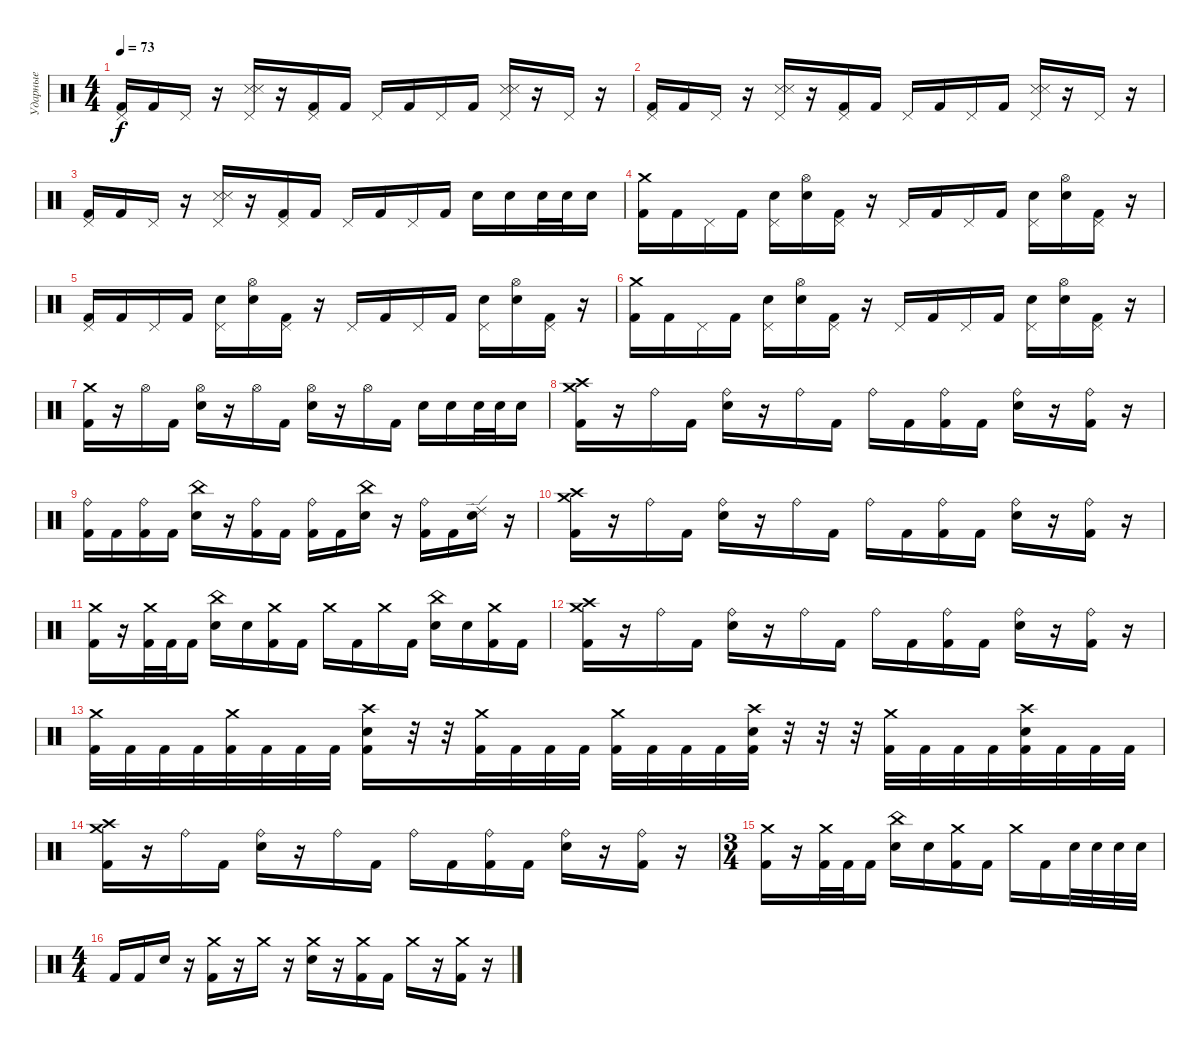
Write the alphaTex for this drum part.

\track ("Ударные" "Ударные") {instrument percussion}
\staff {score}
\articulation defaults
\ts (4 4)
\tempo 73
\clef neutral
\ks c
("Pedal Hi-Hat (hit)" "Kick (hit) 2").16{dy f} "Kick (hit) 2".16 "Pedal Hi-Hat (hit)".16 r.16 ("Pedal Hi-Hat (hit)" "Snare (side stick) 3" "Snare (side stick) 3").16 r.16 ("Pedal Hi-Hat (hit)" "Kick (hit) 2").16 "Kick (hit) 2".16 "Pedal Hi-Hat (hit)".16 "Kick (hit) 2".16 "Pedal Hi-Hat (hit)".16 "Kick (hit) 2".16 ("Pedal Hi-Hat (hit)" "Snare (side stick) 3" "Snare (side stick) 3").16 r.16 "Pedal Hi-Hat (hit)".16 r.16 |
("Pedal Hi-Hat (hit)" "Kick (hit) 2").16 "Kick (hit) 2".16 "Pedal Hi-Hat (hit)".16 r.16 ("Pedal Hi-Hat (hit)" "Snare (side stick) 3" "Snare (side stick) 3").16 r.16 ("Pedal Hi-Hat (hit)" "Kick (hit) 2").16 "Kick (hit) 2".16 "Pedal Hi-Hat (hit)".16 "Kick (hit) 2".16 "Pedal Hi-Hat (hit)".16 "Kick (hit) 2".16 ("Pedal Hi-Hat (hit)" "Snare (side stick) 3" "Snare (side stick) 3").16 r.16 "Pedal Hi-Hat (hit)".16 r.16 |
("Pedal Hi-Hat (hit)" "Kick (hit) 2").16 "Kick (hit) 2".16 "Pedal Hi-Hat (hit)".16 r.16 ("Pedal Hi-Hat (hit)" "Snare (side stick) 3" "Snare (side stick) 3").16 r.16 ("Pedal Hi-Hat (hit)" "Kick (hit) 2").16 "Kick (hit) 2".16 "Pedal Hi-Hat (hit)".16 "Kick (hit) 2".16 "Pedal Hi-Hat (hit)".16 "Kick (hit) 2".16 "Electric Snare (hit)".16 "Electric Snare (hit)".16 "Electric Snare (hit)".32 "Electric Snare (hit)".32 "Electric Snare (hit)".16 |
("Crash medium (hit)" "Kick (hit) 2").16 "Kick (hit) 2".16 "Pedal Hi-Hat (hit)".16 "Kick (hit) 2".16 ("Pedal Hi-Hat (hit)" "Electric Snare (hit)").16 ("Hi-Hat (open)" "Electric Snare (hit)").16 ("Pedal Hi-Hat (hit)" "Kick (hit) 2").16 r.16 "Pedal Hi-Hat (hit)".16 "Kick (hit) 2".16 "Pedal Hi-Hat (hit)".16 "Kick (hit) 2".16 ("Pedal Hi-Hat (hit)" "Electric Snare (hit)").16 ("Hi-Hat (open)" "Electric Snare (hit)").16 ("Pedal Hi-Hat (hit)" "Kick (hit) 2").16 r.16 |
("Pedal Hi-Hat (hit)" "Kick (hit) 2").16 "Kick (hit) 2".16 "Pedal Hi-Hat (hit)".16 "Kick (hit) 2".16 ("Pedal Hi-Hat (hit)" "Electric Snare (hit)").16 ("Hi-Hat (open)" "Electric Snare (hit)").16 ("Pedal Hi-Hat (hit)" "Kick (hit) 2").16 r.16 "Pedal Hi-Hat (hit)".16 "Kick (hit) 2".16 "Pedal Hi-Hat (hit)".16 "Kick (hit) 2".16 ("Pedal Hi-Hat (hit)" "Electric Snare (hit)").16 ("Hi-Hat (open)" "Electric Snare (hit)").16 ("Pedal Hi-Hat (hit)" "Kick (hit) 2").16 r.16 |
("Crash medium (hit)" "Kick (hit) 2").16 "Kick (hit) 2".16 "Pedal Hi-Hat (hit)".16 "Kick (hit) 2".16 ("Pedal Hi-Hat (hit)" "Electric Snare (hit)").16 ("Hi-Hat (open)" "Electric Snare (hit)").16 ("Pedal Hi-Hat (hit)" "Kick (hit) 2").16 r.16 "Pedal Hi-Hat (hit)".16 "Kick (hit) 2".16 "Pedal Hi-Hat (hit)".16 "Kick (hit) 2".16 ("Pedal Hi-Hat (hit)" "Electric Snare (hit)").16 ("Hi-Hat (open)" "Electric Snare (hit)").16 ("Pedal Hi-Hat (hit)" "Kick (hit) 2").16 r.16 |
("Crash medium (hit)" "Kick (hit) 2").16 r.16 "Hi-Hat (open)".16 "Kick (hit) 2".16 ("Hi-Hat (open)" "Electric Snare (hit)").16 r.16 "Hi-Hat (open)".16 "Kick (hit) 2".16 ("Hi-Hat (open)" "Electric Snare (hit)").16 r.16 "Hi-Hat (open)".16 "Kick (hit) 2".16 "Electric Snare (hit)".16 "Electric Snare (hit)".16 "Electric Snare (hit)".32 "Electric Snare (hit)".32 "Electric Snare (hit)".16 |
("Crash medium (hit)" "Crash high (hit)" "Kick (hit) 2").16 r.16 "Ride (bell)".16 "Kick (hit) 2".16 ("Ride (bell)" "Electric Snare (hit)").16 r.16 "Ride (bell)".16 "Kick (hit) 2".16 "Ride (bell)".16 "Kick (hit) 2".16 ("Ride (bell)" "Kick (hit) 2").16 "Kick (hit) 2".16 ("Ride (bell)" "Electric Snare (hit)").16 r.16 ("Ride (bell)" "Kick (hit) 2").16 r.16 |
("Ride (bell)" "Kick (hit) 2").16 "Kick (hit) 2".16 ("Ride (bell)" "Kick (hit) 2").16 "Kick (hit) 2".16 ("China (hit)" "Electric Snare (hit)").16 r.16 ("Ride (bell)" "Kick (hit) 2").16 "Kick (hit) 2".16 ("Ride (bell)" "Kick (hit) 2").16 "Kick (hit) 2".16 ("China (hit)" "Electric Snare (hit)").16 r.16 ("Ride (bell)" "Kick (hit) 2").16 "Kick (hit) 2".16 ("Ride (edge) 2" "Electric Snare (hit)").16 r.16 |
("Crash medium (hit)" "Crash high (hit)" "Kick (hit) 2").16 r.16 "Ride (bell)".16 "Kick (hit) 2".16 ("Ride (bell)" "Electric Snare (hit)").16 r.16 "Ride (bell)".16 "Kick (hit) 2".16 "Ride (bell)".16 "Kick (hit) 2".16 ("Ride (bell)" "Kick (hit) 2").16 "Kick (hit) 2".16 ("Ride (bell)" "Electric Snare (hit)").16 r.16 ("Ride (bell)" "Kick (hit) 2").16 r.16 |
("Crash medium (hit)" "Kick (hit) 2").16 r.16 ("Crash medium (hit)" "Kick (hit) 2").32 "Kick (hit) 2".32 "Kick (hit) 2".16 ("China (hit)" "Electric Snare (hit)").16 "Electric Snare (hit)".16 ("Crash medium (hit)" "Kick (hit) 2").16 "Kick (hit) 2".16 "Crash medium (hit)".16 "Kick (hit) 2".16 "Crash medium (hit)".16 "Kick (hit) 2".16 ("China (hit)" "Electric Snare (hit)").16 "Electric Snare (hit)".16 ("Crash medium (hit)" "Kick (hit) 2").16 "Kick (hit) 2".16 |
("Crash medium (hit)" "Crash high (hit)" "Kick (hit) 2").16 r.16 "Ride (bell)".16 "Kick (hit) 2".16 ("Ride (bell)" "Electric Snare (hit)").16 r.16 "Ride (bell)".16 "Kick (hit) 2".16 "Ride (bell)".16 "Kick (hit) 2".16 ("Ride (bell)" "Kick (hit) 2").16 "Kick (hit) 2".16 ("Ride (bell)" "Electric Snare (hit)").16 r.16 ("Ride (bell)" "Kick (hit) 2").16 r.16 |
("Crash medium (hit)" "Kick (hit) 2").32 "Kick (hit) 2".32 "Kick (hit) 2".32 "Kick (hit) 2".32 ("Crash medium (hit)" "Kick (hit) 2").32 "Kick (hit) 2".32 "Kick (hit) 2".32 "Kick (hit) 2".32 ("Crash high (hit)" "Electric Snare (hit)" "Kick (hit) 2").16 r.32 r.32 ("Crash medium (hit)" "Kick (hit) 2").32 "Kick (hit) 2".32 "Kick (hit) 2".32 "Kick (hit) 2".32 ("Crash medium (hit)" "Kick (hit) 2").32 "Kick (hit) 2".32 "Kick (hit) 2".32 "Kick (hit) 2".32 ("Crash high (hit)" "Electric Snare (hit)" "Kick (hit) 2").32 r.32 r.32 r.32 ("Crash medium (hit)" "Kick (hit) 2").32 "Kick (hit) 2".32 "Kick (hit) 2".32 "Kick (hit) 2".32 ("Crash high (hit)" "Electric Snare (hit)" "Kick (hit) 2").32 "Kick (hit) 2".32 "Kick (hit) 2".32 "Kick (hit) 2".32 |
("Crash medium (hit)" "Crash high (hit)" "Kick (hit) 2").16 r.16 "Ride (bell)".16 "Kick (hit) 2".16 ("Ride (bell)" "Electric Snare (hit)").16 r.16 "Ride (bell)".16 "Kick (hit) 2".16 "Ride (bell)".16 "Kick (hit) 2".16 ("Ride (bell)" "Kick (hit) 2").16 "Kick (hit) 2".16 ("Ride (bell)" "Electric Snare (hit)").16 r.16 ("Ride (bell)" "Kick (hit) 2").16 r.16 |
\ts (3 4)
("Crash medium (hit)" "Kick (hit) 2").16 r.16 ("Crash medium (hit)" "Kick (hit) 2").32 "Kick (hit) 2".32 "Kick (hit) 2".16 ("China (hit)" "Electric Snare (hit)").16 "Electric Snare (hit)".16 ("Crash medium (hit)" "Kick (hit) 2").16 "Kick (hit) 2".16 "Crash medium (hit)".16 "Kick (hit) 2".16 "Electric Snare (hit)".32 "Electric Snare (hit)".32 "Electric Snare (hit)".32 "Electric Snare (hit)".32 |
\ts (4 4)
"Kick (hit) 2".16 "Kick (hit) 2".16 "Electric Snare (hit)".16 r.16 ("Crash medium (hit)" "Kick (hit) 2").16 r.16 "Crash medium (hit)".16 r.16 ("Crash medium (hit)" "Electric Snare (hit)").16 r.16 ("Crash medium (hit)" "Kick (hit) 2").16 "Kick (hit) 2".16 "Crash medium (hit)".16 r.16 ("Crash medium (hit)" "Kick (hit) 2").16 r.16
